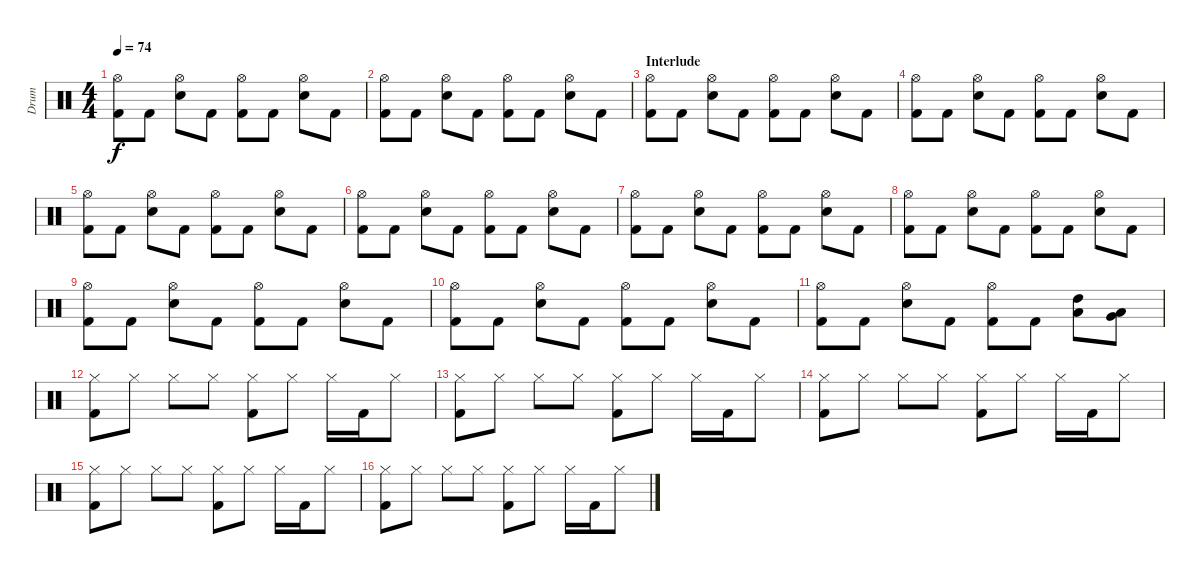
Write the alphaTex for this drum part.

\track ("Drum" "Drum") {instrument percussion}
\staff {score}
\articulation defaults
\ts (4 4)
\tempo 74
\clef neutral
\ks c
("Hi-Hat (open)" "Kick (hit) 2").8{dy f} "Kick (hit) 2".8 ("Snare (hit) 2" "Hi-Hat (open)").8 "Kick (hit) 2".8 ("Kick (hit) 2" "Hi-Hat (open)").8 "Kick (hit) 2".8 ("Snare (hit) 2" "Hi-Hat (open)").8 "Kick (hit) 2".8 |
("Hi-Hat (open)" "Kick (hit) 2").8 "Kick (hit) 2".8 ("Snare (hit) 2" "Hi-Hat (open)").8 "Kick (hit) 2".8 ("Kick (hit) 2" "Hi-Hat (open)").8 "Kick (hit) 2".8 ("Snare (hit) 2" "Hi-Hat (open)").8 "Kick (hit) 2".8 |
\section ("" "Interlude")
("Hi-Hat (open)" "Kick (hit) 2").8 "Kick (hit) 2".8 ("Snare (hit) 2" "Hi-Hat (open)").8 "Kick (hit) 2".8 ("Kick (hit) 2" "Hi-Hat (open)").8 "Kick (hit) 2".8 ("Snare (hit) 2" "Hi-Hat (open)").8 "Kick (hit) 2".8 |
("Hi-Hat (open)" "Kick (hit) 2").8 "Kick (hit) 2".8 ("Snare (hit) 2" "Hi-Hat (open)").8 "Kick (hit) 2".8 ("Kick (hit) 2" "Hi-Hat (open)").8 "Kick (hit) 2".8 ("Snare (hit) 2" "Hi-Hat (open)").8 "Kick (hit) 2".8 |
("Hi-Hat (open)" "Kick (hit) 2").8 "Kick (hit) 2".8 ("Snare (hit) 2" "Hi-Hat (open)").8 "Kick (hit) 2".8 ("Kick (hit) 2" "Hi-Hat (open)").8 "Kick (hit) 2".8 ("Snare (hit) 2" "Hi-Hat (open)").8 "Kick (hit) 2".8 |
("Hi-Hat (open)" "Kick (hit) 2").8 "Kick (hit) 2".8 ("Snare (hit) 2" "Hi-Hat (open)").8 "Kick (hit) 2".8 ("Kick (hit) 2" "Hi-Hat (open)").8 "Kick (hit) 2".8 ("Snare (hit) 2" "Hi-Hat (open)").8 "Kick (hit) 2".8 |
("Hi-Hat (open)" "Kick (hit) 2").8 "Kick (hit) 2".8 ("Snare (hit) 2" "Hi-Hat (open)").8 "Kick (hit) 2".8 ("Kick (hit) 2" "Hi-Hat (open)").8 "Kick (hit) 2".8 ("Snare (hit) 2" "Hi-Hat (open)").8 "Kick (hit) 2".8 |
("Hi-Hat (open)" "Kick (hit) 2").8 "Kick (hit) 2".8 ("Snare (hit) 2" "Hi-Hat (open)").8 "Kick (hit) 2".8 ("Kick (hit) 2" "Hi-Hat (open)").8 "Kick (hit) 2".8 ("Snare (hit) 2" "Hi-Hat (open)").8 "Kick (hit) 2".8 |
("Hi-Hat (open)" "Kick (hit) 2").8 "Kick (hit) 2".8 ("Snare (hit) 2" "Hi-Hat (open)").8 "Kick (hit) 2".8 ("Kick (hit) 2" "Hi-Hat (open)").8 "Kick (hit) 2".8 ("Snare (hit) 2" "Hi-Hat (open)").8 "Kick (hit) 2".8 |
("Hi-Hat (open)" "Kick (hit) 2").8 "Kick (hit) 2".8 ("Snare (hit) 2" "Hi-Hat (open)").8 "Kick (hit) 2".8 ("Kick (hit) 2" "Hi-Hat (open)").8 "Kick (hit) 2".8 ("Snare (hit) 2" "Hi-Hat (open)").8 "Kick (hit) 2".8 |
("Hi-Hat (open)" "Kick (hit) 2").8 "Kick (hit) 2".8 ("Snare (hit) 2" "Hi-Hat (open)").8 "Kick (hit) 2".8 ("Kick (hit) 2" "Hi-Hat (open)").8 "Kick (hit) 2".8 ("High Tom (hit)" "Low Tom (hit)").8 ("Very Low Tom (hit)" "Low Tom (hit)").8 |
("Kick (hit) 2" "Hi-Hat (closed)").8 "Hi-Hat (closed)".8 "Hi-Hat (closed)".8 "Hi-Hat (closed)".8 ("Hi-Hat (closed)" "Kick (hit) 2").8 "Hi-Hat (closed)".8 "Hi-Hat (closed)".16 "Kick (hit) 2".16 "Hi-Hat (closed)".8 |
("Kick (hit) 2" "Hi-Hat (closed)").8 "Hi-Hat (closed)".8 "Hi-Hat (closed)".8 "Hi-Hat (closed)".8 ("Hi-Hat (closed)" "Kick (hit) 2").8 "Hi-Hat (closed)".8 "Hi-Hat (closed)".16 "Kick (hit) 2".16 "Hi-Hat (closed)".8 |
("Kick (hit) 2" "Hi-Hat (closed)").8 "Hi-Hat (closed)".8 "Hi-Hat (closed)".8 "Hi-Hat (closed)".8 ("Hi-Hat (closed)" "Kick (hit) 2").8 "Hi-Hat (closed)".8 "Hi-Hat (closed)".16 "Kick (hit) 2".16 "Hi-Hat (closed)".8 |
("Kick (hit) 2" "Hi-Hat (closed)").8 "Hi-Hat (closed)".8 "Hi-Hat (closed)".8 "Hi-Hat (closed)".8 ("Hi-Hat (closed)" "Kick (hit) 2").8 "Hi-Hat (closed)".8 "Hi-Hat (closed)".16 "Kick (hit) 2".16 "Hi-Hat (closed)".8 |
("Kick (hit) 2" "Hi-Hat (closed)").8 "Hi-Hat (closed)".8 "Hi-Hat (closed)".8 "Hi-Hat (closed)".8 ("Hi-Hat (closed)" "Kick (hit) 2").8 "Hi-Hat (closed)".8 "Hi-Hat (closed)".16 "Kick (hit) 2".16 "Hi-Hat (closed)".8
